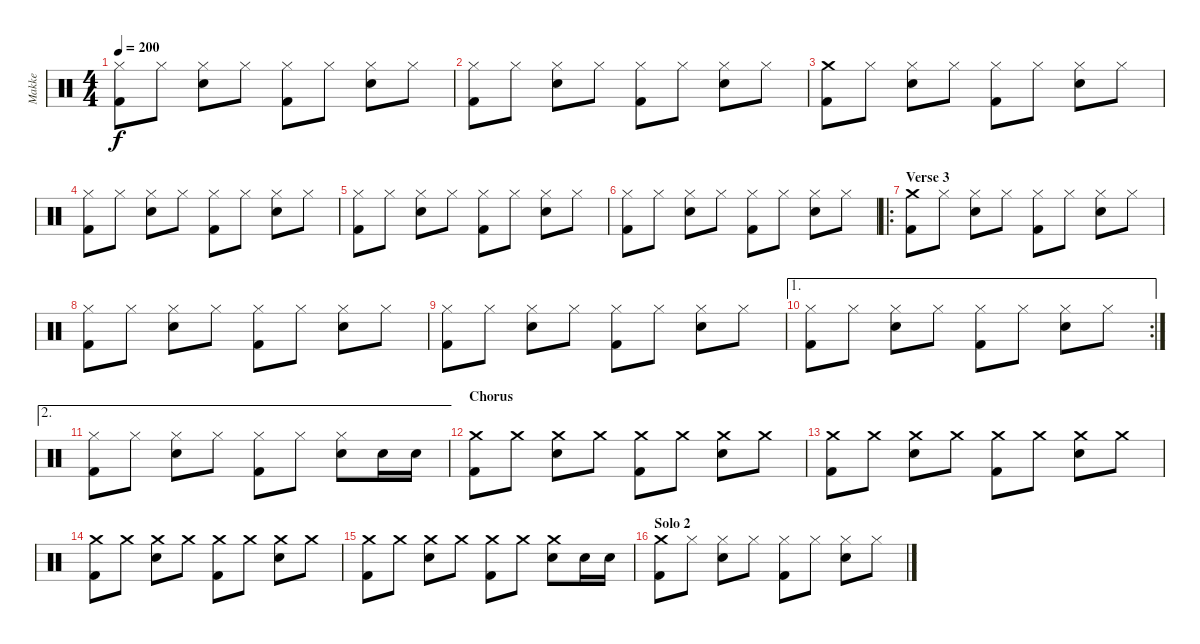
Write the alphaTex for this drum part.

\track ("Makke" "Makke") {instrument percussion}
\staff {score}
\articulation defaults
\ts (4 4)
\tempo 200
\clef neutral
\ks c
("Hi-Hat (closed)" "Kick (hit) 2").8{dy f} "Hi-Hat (closed)".8 ("Hi-Hat (closed)" "Electric Snare (hit)").8 "Hi-Hat (closed)".8 ("Hi-Hat (closed)" "Kick (hit) 2").8 "Hi-Hat (closed)".8 ("Hi-Hat (closed)" "Electric Snare (hit)").8 "Hi-Hat (closed)".8 |
("Hi-Hat (closed)" "Kick (hit) 2").8 "Hi-Hat (closed)".8 ("Hi-Hat (closed)" "Electric Snare (hit)").8 "Hi-Hat (closed)".8 ("Hi-Hat (closed)" "Kick (hit) 2").8 "Hi-Hat (closed)".8 ("Hi-Hat (closed)" "Electric Snare (hit)").8 "Hi-Hat (closed)".8 |
("Crash medium (hit)" "Kick (hit) 2").8 "Hi-Hat (closed)".8 ("Hi-Hat (closed)" "Electric Snare (hit)").8 "Hi-Hat (closed)".8 ("Hi-Hat (closed)" "Kick (hit) 2").8 "Hi-Hat (closed)".8 ("Hi-Hat (closed)" "Electric Snare (hit)").8 "Hi-Hat (closed)".8 |
("Hi-Hat (closed)" "Kick (hit) 2").8 "Hi-Hat (closed)".8 ("Hi-Hat (closed)" "Electric Snare (hit)").8 "Hi-Hat (closed)".8 ("Hi-Hat (closed)" "Kick (hit) 2").8 "Hi-Hat (closed)".8 ("Hi-Hat (closed)" "Electric Snare (hit)").8 "Hi-Hat (closed)".8 |
("Hi-Hat (closed)" "Kick (hit) 2").8 "Hi-Hat (closed)".8 ("Hi-Hat (closed)" "Electric Snare (hit)").8 "Hi-Hat (closed)".8 ("Hi-Hat (closed)" "Kick (hit) 2").8 "Hi-Hat (closed)".8 ("Hi-Hat (closed)" "Electric Snare (hit)").8 "Hi-Hat (closed)".8 |
("Hi-Hat (closed)" "Kick (hit) 2").8 "Hi-Hat (closed)".8 ("Hi-Hat (closed)" "Electric Snare (hit)").8 "Hi-Hat (closed)".8 ("Hi-Hat (closed)" "Kick (hit) 2").8 "Hi-Hat (closed)".8 ("Hi-Hat (closed)" "Electric Snare (hit)").8 "Hi-Hat (closed)".8 |
\ro
\section ("" "Verse 3")
("Crash medium (hit)" "Kick (hit) 2").8 "Hi-Hat (closed)".8 ("Hi-Hat (closed)" "Electric Snare (hit)").8 "Hi-Hat (closed)".8 ("Hi-Hat (closed)" "Kick (hit) 2").8 "Hi-Hat (closed)".8 ("Hi-Hat (closed)" "Electric Snare (hit)").8 "Hi-Hat (closed)".8 |
("Hi-Hat (closed)" "Kick (hit) 2").8 "Hi-Hat (closed)".8 ("Hi-Hat (closed)" "Electric Snare (hit)").8 "Hi-Hat (closed)".8 ("Hi-Hat (closed)" "Kick (hit) 2").8 "Hi-Hat (closed)".8 ("Hi-Hat (closed)" "Electric Snare (hit)").8 "Hi-Hat (closed)".8 |
("Hi-Hat (closed)" "Kick (hit) 2").8 "Hi-Hat (closed)".8 ("Hi-Hat (closed)" "Electric Snare (hit)").8 "Hi-Hat (closed)".8 ("Hi-Hat (closed)" "Kick (hit) 2").8 "Hi-Hat (closed)".8 ("Hi-Hat (closed)" "Electric Snare (hit)").8 "Hi-Hat (closed)".8 |
\ae 1
\rc 2
("Hi-Hat (closed)" "Kick (hit) 2").8 "Hi-Hat (closed)".8 ("Hi-Hat (closed)" "Electric Snare (hit)").8 "Hi-Hat (closed)".8 ("Hi-Hat (closed)" "Kick (hit) 2").8 "Hi-Hat (closed)".8 ("Hi-Hat (closed)" "Electric Snare (hit)").8 "Hi-Hat (closed)".8 |
\ae 2
("Hi-Hat (closed)" "Kick (hit) 2").8 "Hi-Hat (closed)".8 ("Hi-Hat (closed)" "Electric Snare (hit)").8 "Hi-Hat (closed)".8 ("Hi-Hat (closed)" "Kick (hit) 2").8 "Hi-Hat (closed)".8 ("Hi-Hat (closed)" "Electric Snare (hit)").8 "Electric Snare (hit)".16 "Electric Snare (hit)".16 |
\section ("" "Chorus")
("Crash medium (hit)" "Kick (hit) 2").8 "Crash medium (hit)".8 ("Crash medium (hit)" "Electric Snare (hit)").8 "Crash medium (hit)".8 ("Crash medium (hit)" "Kick (hit) 2").8 "Crash medium (hit)".8 ("Crash medium (hit)" "Electric Snare (hit)").8 "Crash medium (hit)".8 |
("Crash medium (hit)" "Kick (hit) 2").8 "Crash medium (hit)".8 ("Crash medium (hit)" "Electric Snare (hit)").8 "Crash medium (hit)".8 ("Crash medium (hit)" "Kick (hit) 2").8 "Crash medium (hit)".8 ("Crash medium (hit)" "Electric Snare (hit)").8 "Crash medium (hit)".8 |
("Crash medium (hit)" "Kick (hit) 2").8 "Crash medium (hit)".8 ("Crash medium (hit)" "Electric Snare (hit)").8 "Crash medium (hit)".8 ("Crash medium (hit)" "Kick (hit) 2").8 "Crash medium (hit)".8 ("Crash medium (hit)" "Electric Snare (hit)").8 "Crash medium (hit)".8 |
("Crash medium (hit)" "Kick (hit) 2").8 "Crash medium (hit)".8 ("Crash medium (hit)" "Electric Snare (hit)").8 "Crash medium (hit)".8 ("Crash medium (hit)" "Kick (hit) 2").8 "Crash medium (hit)".8 ("Crash medium (hit)" "Electric Snare (hit)").8 "Electric Snare (hit)".16 "Electric Snare (hit)".16 |
\section ("" "Solo 2")
("Crash medium (hit)" "Kick (hit) 2").8 "Hi-Hat (closed)".8 ("Hi-Hat (closed)" "Electric Snare (hit)").8 "Hi-Hat (closed)".8 ("Hi-Hat (closed)" "Kick (hit) 2").8 "Hi-Hat (closed)".8 ("Hi-Hat (closed)" "Electric Snare (hit)").8 "Hi-Hat (closed)".8
